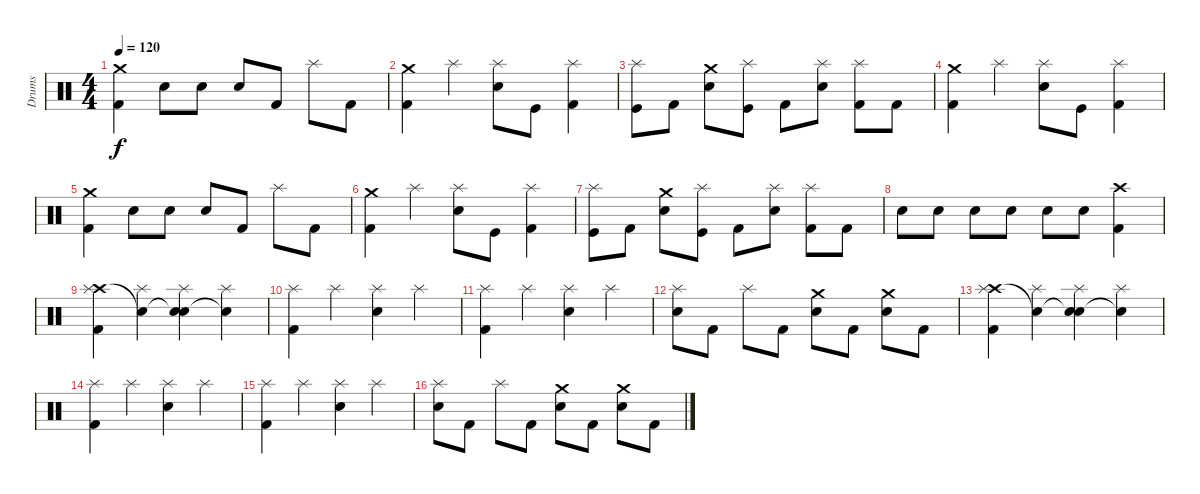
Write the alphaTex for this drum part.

\track ("Drums" "Drums") {instrument percussion}
\staff {score}
\articulation defaults
\ts (4 4)
\tempo 120
\clef neutral
\ks c
("Crash medium (hit)" "Kick (hit) 2").4{dy f} "Snare (hit) 2".8 "Snare (hit) 2".8 "Snare (hit) 2".8 "Kick (hit) 2".8 "Splash (hit)".8 "Kick (hit) 2".8 |
("Crash medium (hit)" "Kick (hit) 2").4 "Splash (hit)".4 ("Splash (hit)" "Snare (hit) 2").8 "Kick (hit)".8 ("Splash (hit)" "Kick (hit) 2").4 |
("Splash (hit)" "Kick (hit)").8 "Kick (hit) 2".8 ("Crash medium (hit)" "Snare (hit) 2").8 ("Splash (hit)" "Kick (hit)").8 "Kick (hit) 2".8 ("Splash (hit)" "Snare (hit) 2").8 ("Splash (hit)" "Kick (hit) 2").8 "Kick (hit) 2".8 |
("Crash medium (hit)" "Kick (hit) 2").4 "Splash (hit)".4 ("Splash (hit)" "Snare (hit) 2").8 "Kick (hit)".8 ("Splash (hit)" "Kick (hit) 2").4 |
("Crash medium (hit)" "Kick (hit) 2").4 "Snare (hit) 2".8 "Snare (hit) 2".8 "Snare (hit) 2".8 "Kick (hit) 2".8 "Splash (hit)".8 "Kick (hit) 2".8 |
("Crash medium (hit)" "Kick (hit) 2").4 "Splash (hit)".4 ("Splash (hit)" "Snare (hit) 2").8 "Kick (hit)".8 ("Splash (hit)" "Kick (hit) 2").4 |
("Splash (hit)" "Kick (hit)").8 "Kick (hit) 2".8 ("Crash medium (hit)" "Snare (hit) 2").8 ("Splash (hit)" "Kick (hit)").8 "Kick (hit) 2".8 ("Splash (hit)" "Snare (hit) 2").8 ("Splash (hit)" "Kick (hit) 2").8 "Kick (hit) 2".8 |
"Snare (hit) 2".8 "Snare (hit) 2".8 "Snare (hit) 2".8 "Snare (hit) 2".8 "Snare (hit) 2".8 "Snare (hit) 2".8 ("Crash high (hit)" "Kick (hit) 2").4 |
("Crash high (hit)" "Splash (hit)" "Kick (hit) 2").4 ("Snare (hit)"{t} "Splash (hit)").4 ("Snare (hit)"{t} "Splash (hit)" "Snare (hit) 2").4 ("Snare (hit)"{t} "Splash (hit)").4 |
("Splash (hit)" "Kick (hit) 2").4 "Splash (hit)".4 ("Splash (hit)" "Snare (hit) 2").4 "Splash (hit)".4 |
("Splash (hit)" "Kick (hit) 2").4 "Splash (hit)".4 ("Splash (hit)" "Snare (hit) 2").4 "Splash (hit)".4 |
("Splash (hit)" "Snare (hit) 2").8 "Kick (hit) 2".8 "Splash (hit)".8 "Kick (hit) 2".8 ("Crash medium (hit)" "Snare (hit) 2").8 "Kick (hit) 2".8 ("Crash medium (hit)" "Snare (hit) 2").8 "Kick (hit) 2".8 |
("Crash high (hit)" "Splash (hit)" "Kick (hit) 2").4 ("Snare (hit)"{t} "Splash (hit)").4 ("Snare (hit)"{t} "Splash (hit)" "Snare (hit) 2").4 ("Snare (hit)"{t} "Splash (hit)").4 |
("Splash (hit)" "Kick (hit) 2").4 "Splash (hit)".4 ("Splash (hit)" "Snare (hit) 2").4 "Splash (hit)".4 |
("Splash (hit)" "Kick (hit) 2").4 "Splash (hit)".4 ("Splash (hit)" "Snare (hit) 2").4 "Splash (hit)".4 |
("Splash (hit)" "Snare (hit) 2").8 "Kick (hit) 2".8 "Splash (hit)".8 "Kick (hit) 2".8 ("Crash medium (hit)" "Snare (hit) 2").8 "Kick (hit) 2".8 ("Crash medium (hit)" "Snare (hit) 2").8 "Kick (hit) 2".8
